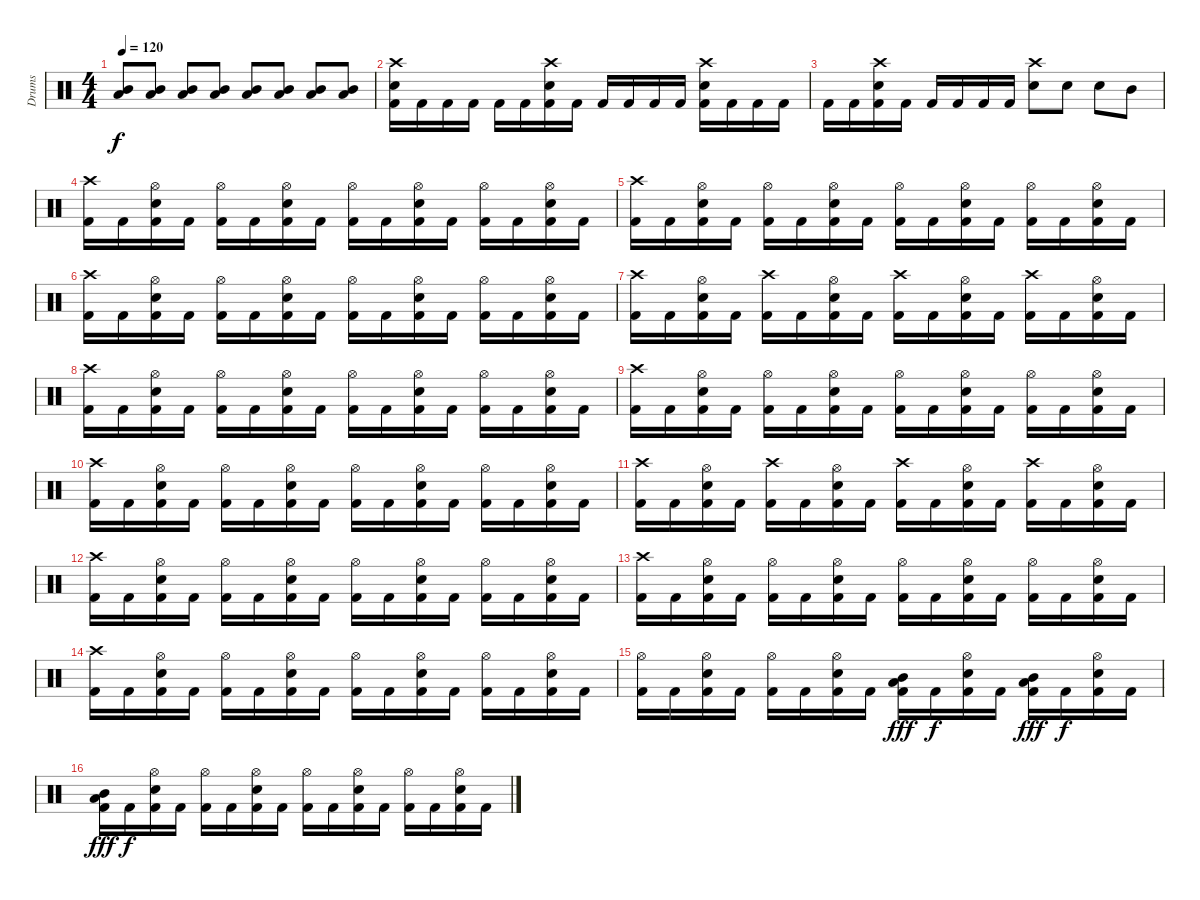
\track ("Drums" "Drums") {instrument percussion}
\staff {score}
\articulation defaults
\ts (4 4)
\tempo 120
\clef neutral
\ks c
("Low Tom (hit)" "Mid Tom (hit)").8{dy f} ("Low Tom (hit)" "Mid Tom (hit)").8 ("Low Tom (hit)" "Mid Tom (hit)").8 ("Low Tom (hit)" "Mid Tom (hit)").8 ("Low Tom (hit)" "Mid Tom (hit)").8 ("Low Tom (hit)" "Mid Tom (hit)").8 ("Low Tom (hit)" "Mid Tom (hit)").8 ("Low Tom (hit)" "Mid Tom (hit)").8 |
("Crash high (hit)" "Snare (hit) 2" "Kick (hit) 2").16 "Kick (hit) 2".16 "Kick (hit) 2".16 "Kick (hit) 2".16 "Kick (hit) 2".16 "Kick (hit) 2".16 ("Crash high (hit)" "Snare (hit) 2" "Kick (hit) 2").16 "Kick (hit) 2".16 "Kick (hit) 2".16 "Kick (hit) 2".16 "Kick (hit) 2".16 "Kick (hit) 2".16 ("Crash high (hit)" "Snare (hit) 2" "Kick (hit) 2").16 "Kick (hit) 2".16 "Kick (hit) 2".16 "Kick (hit) 2".16 |
"Kick (hit) 2".16 "Kick (hit) 2".16 ("Crash high (hit)" "Snare (hit) 2" "Kick (hit) 2").16 "Kick (hit) 2".16 "Kick (hit) 2".16 "Kick (hit) 2".16 "Kick (hit) 2".16 "Kick (hit) 2".16 ("Crash high (hit)" "Snare (hit) 2").8 "Snare (hit) 2".8 "Snare (hit) 2".8 "Mid Tom (hit)".8 |
("Crash high (hit)" "Kick (hit) 2").16 "Kick (hit) 2".16 ("Hi-Hat (open)" "Snare (hit) 2" "Kick (hit) 2").16 "Kick (hit) 2".16 ("Hi-Hat (open)" "Kick (hit) 2").16 "Kick (hit) 2".16 ("Hi-Hat (open)" "Snare (hit) 2" "Kick (hit) 2").16 "Kick (hit) 2".16 ("Hi-Hat (open)" "Kick (hit) 2").16 "Kick (hit) 2".16 ("Hi-Hat (open)" "Snare (hit) 2" "Kick (hit) 2").16 "Kick (hit) 2".16 ("Hi-Hat (open)" "Kick (hit) 2").16 "Kick (hit) 2".16 ("Hi-Hat (open)" "Snare (hit) 2" "Kick (hit) 2").16 "Kick (hit) 2".16 |
("Crash high (hit)" "Kick (hit) 2").16 "Kick (hit) 2".16 ("Hi-Hat (open)" "Snare (hit) 2" "Kick (hit) 2").16 "Kick (hit) 2".16 ("Hi-Hat (open)" "Kick (hit) 2").16 "Kick (hit) 2".16 ("Hi-Hat (open)" "Snare (hit) 2" "Kick (hit) 2").16 "Kick (hit) 2".16 ("Hi-Hat (open)" "Kick (hit) 2").16 "Kick (hit) 2".16 ("Hi-Hat (open)" "Snare (hit) 2" "Kick (hit) 2").16 "Kick (hit) 2".16 ("Hi-Hat (open)" "Kick (hit) 2").16 "Kick (hit) 2".16 ("Hi-Hat (open)" "Snare (hit) 2" "Kick (hit) 2").16 "Kick (hit) 2".16 |
("Crash high (hit)" "Kick (hit) 2").16 "Kick (hit) 2".16 ("Hi-Hat (open)" "Snare (hit) 2" "Kick (hit) 2").16 "Kick (hit) 2".16 ("Hi-Hat (open)" "Kick (hit) 2").16 "Kick (hit) 2".16 ("Hi-Hat (open)" "Snare (hit) 2" "Kick (hit) 2").16 "Kick (hit) 2".16 ("Hi-Hat (open)" "Kick (hit) 2").16 "Kick (hit) 2".16 ("Hi-Hat (open)" "Snare (hit) 2" "Kick (hit) 2").16 "Kick (hit) 2".16 ("Hi-Hat (open)" "Kick (hit) 2").16 "Kick (hit) 2".16 ("Hi-Hat (open)" "Snare (hit) 2" "Kick (hit) 2").16 "Kick (hit) 2".16 |
("Crash high (hit)" "Kick (hit) 2").16 "Kick (hit) 2".16 ("Hi-Hat (open)" "Snare (hit) 2" "Kick (hit) 2").16 "Kick (hit) 2".16 ("Crash high (hit)" "Kick (hit) 2").16 "Kick (hit) 2".16 ("Hi-Hat (open)" "Snare (hit) 2" "Kick (hit) 2").16 "Kick (hit) 2".16 ("Crash high (hit)" "Kick (hit) 2").16 "Kick (hit) 2".16 ("Hi-Hat (open)" "Snare (hit) 2" "Kick (hit) 2").16 "Kick (hit) 2".16 ("Crash high (hit)" "Kick (hit) 2").16 "Kick (hit) 2".16 ("Hi-Hat (open)" "Snare (hit) 2" "Kick (hit) 2").16 "Kick (hit) 2".16 |
("Crash high (hit)" "Kick (hit) 2").16 "Kick (hit) 2".16 ("Hi-Hat (open)" "Snare (hit) 2" "Kick (hit) 2").16 "Kick (hit) 2".16 ("Hi-Hat (open)" "Kick (hit) 2").16 "Kick (hit) 2".16 ("Hi-Hat (open)" "Snare (hit) 2" "Kick (hit) 2").16 "Kick (hit) 2".16 ("Hi-Hat (open)" "Kick (hit) 2").16 "Kick (hit) 2".16 ("Hi-Hat (open)" "Snare (hit) 2" "Kick (hit) 2").16 "Kick (hit) 2".16 ("Hi-Hat (open)" "Kick (hit) 2").16 "Kick (hit) 2".16 ("Hi-Hat (open)" "Snare (hit) 2" "Kick (hit) 2").16 "Kick (hit) 2".16 |
("Crash high (hit)" "Kick (hit) 2").16 "Kick (hit) 2".16 ("Hi-Hat (open)" "Snare (hit) 2" "Kick (hit) 2").16 "Kick (hit) 2".16 ("Hi-Hat (open)" "Kick (hit) 2").16 "Kick (hit) 2".16 ("Hi-Hat (open)" "Snare (hit) 2" "Kick (hit) 2").16 "Kick (hit) 2".16 ("Hi-Hat (open)" "Kick (hit) 2").16 "Kick (hit) 2".16 ("Hi-Hat (open)" "Snare (hit) 2" "Kick (hit) 2").16 "Kick (hit) 2".16 ("Hi-Hat (open)" "Kick (hit) 2").16 "Kick (hit) 2".16 ("Hi-Hat (open)" "Snare (hit) 2" "Kick (hit) 2").16 "Kick (hit) 2".16 |
("Crash high (hit)" "Kick (hit) 2").16 "Kick (hit) 2".16 ("Hi-Hat (open)" "Snare (hit) 2" "Kick (hit) 2").16 "Kick (hit) 2".16 ("Hi-Hat (open)" "Kick (hit) 2").16 "Kick (hit) 2".16 ("Hi-Hat (open)" "Snare (hit) 2" "Kick (hit) 2").16 "Kick (hit) 2".16 ("Hi-Hat (open)" "Kick (hit) 2").16 "Kick (hit) 2".16 ("Hi-Hat (open)" "Snare (hit) 2" "Kick (hit) 2").16 "Kick (hit) 2".16 ("Hi-Hat (open)" "Kick (hit) 2").16 "Kick (hit) 2".16 ("Hi-Hat (open)" "Snare (hit) 2" "Kick (hit) 2").16 "Kick (hit) 2".16 |
("Crash high (hit)" "Kick (hit) 2").16 "Kick (hit) 2".16 ("Hi-Hat (open)" "Snare (hit) 2" "Kick (hit) 2").16 "Kick (hit) 2".16 ("Crash high (hit)" "Kick (hit) 2").16 "Kick (hit) 2".16 ("Hi-Hat (open)" "Snare (hit) 2" "Kick (hit) 2").16 "Kick (hit) 2".16 ("Crash high (hit)" "Kick (hit) 2").16 "Kick (hit) 2".16 ("Hi-Hat (open)" "Snare (hit) 2" "Kick (hit) 2").16 "Kick (hit) 2".16 ("Crash high (hit)" "Kick (hit) 2").16 "Kick (hit) 2".16 ("Hi-Hat (open)" "Snare (hit) 2" "Kick (hit) 2").16 "Kick (hit) 2".16 |
("Crash high (hit)" "Kick (hit) 2").16 "Kick (hit) 2".16 ("Hi-Hat (open)" "Snare (hit) 2" "Kick (hit) 2").16 "Kick (hit) 2".16 ("Hi-Hat (open)" "Kick (hit) 2").16 "Kick (hit) 2".16 ("Hi-Hat (open)" "Snare (hit) 2" "Kick (hit) 2").16 "Kick (hit) 2".16 ("Hi-Hat (open)" "Kick (hit) 2").16 "Kick (hit) 2".16 ("Hi-Hat (open)" "Snare (hit) 2" "Kick (hit) 2").16 "Kick (hit) 2".16 ("Hi-Hat (open)" "Kick (hit) 2").16 "Kick (hit) 2".16 ("Hi-Hat (open)" "Snare (hit) 2" "Kick (hit) 2").16 "Kick (hit) 2".16 |
("Crash high (hit)" "Kick (hit) 2").16 "Kick (hit) 2".16 ("Hi-Hat (open)" "Snare (hit) 2" "Kick (hit) 2").16 "Kick (hit) 2".16 ("Hi-Hat (open)" "Kick (hit) 2").16 "Kick (hit) 2".16 ("Hi-Hat (open)" "Snare (hit) 2" "Kick (hit) 2").16 "Kick (hit) 2".16 ("Hi-Hat (open)" "Kick (hit) 2").16 "Kick (hit) 2".16 ("Hi-Hat (open)" "Snare (hit) 2" "Kick (hit) 2").16 "Kick (hit) 2".16 ("Hi-Hat (open)" "Kick (hit) 2").16 "Kick (hit) 2".16 ("Hi-Hat (open)" "Snare (hit) 2" "Kick (hit) 2").16 "Kick (hit) 2".16 |
("Crash high (hit)" "Kick (hit) 2").16 "Kick (hit) 2".16 ("Hi-Hat (open)" "Snare (hit) 2" "Kick (hit) 2").16 "Kick (hit) 2".16 ("Hi-Hat (open)" "Kick (hit) 2").16 "Kick (hit) 2".16 ("Hi-Hat (open)" "Snare (hit) 2" "Kick (hit) 2").16 "Kick (hit) 2".16 ("Hi-Hat (open)" "Kick (hit) 2").16 "Kick (hit) 2".16 ("Hi-Hat (open)" "Snare (hit) 2" "Kick (hit) 2").16 "Kick (hit) 2".16 ("Hi-Hat (open)" "Kick (hit) 2").16 "Kick (hit) 2".16 ("Hi-Hat (open)" "Snare (hit) 2" "Kick (hit) 2").16 "Kick (hit) 2".16 |
("Hi-Hat (open)" "Kick (hit) 2").16 "Kick (hit) 2".16 ("Hi-Hat (open)" "Snare (hit) 2" "Kick (hit) 2").16 "Kick (hit) 2".16 ("Hi-Hat (open)" "Kick (hit) 2").16 "Kick (hit) 2".16 ("Hi-Hat (open)" "Snare (hit) 2" "Kick (hit) 2").16 "Kick (hit) 2".16 ("Mid Tom (hit)" "Low Tom (hit)" "Kick (hit) 2").16{dy fff} "Kick (hit) 2".16{dy f} ("Hi-Hat (open)" "Snare (hit) 2" "Kick (hit) 2").16 "Kick (hit) 2".16 ("Mid Tom (hit)" "Low Tom (hit)" "Kick (hit) 2").16{dy fff} "Kick (hit) 2".16{dy f} ("Hi-Hat (open)" "Snare (hit) 2" "Kick (hit) 2").16 "Kick (hit) 2".16 |
("Mid Tom (hit)" "Low Tom (hit)" "Kick (hit) 2").16{dy fff} "Kick (hit) 2".16{dy f} ("Hi-Hat (open)" "Snare (hit) 2" "Kick (hit) 2").16 "Kick (hit) 2".16 ("Hi-Hat (open)" "Kick (hit) 2").16 "Kick (hit) 2".16 ("Hi-Hat (open)" "Snare (hit) 2" "Kick (hit) 2").16 "Kick (hit) 2".16 ("Hi-Hat (open)" "Kick (hit) 2").16 "Kick (hit) 2".16 ("Hi-Hat (open)" "Snare (hit) 2" "Kick (hit) 2").16 "Kick (hit) 2".16 ("Hi-Hat (open)" "Kick (hit) 2").16 "Kick (hit) 2".16 ("Hi-Hat (open)" "Snare (hit) 2" "Kick (hit) 2").16 "Kick (hit) 2".16
